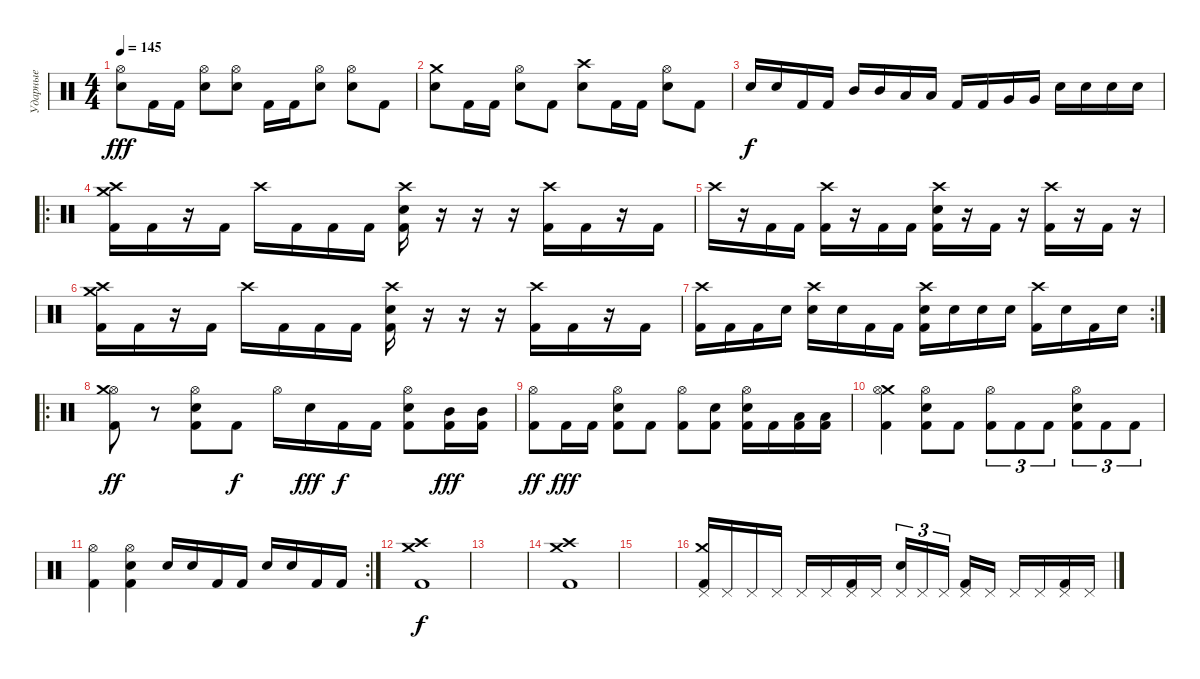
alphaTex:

\track ("Ударные" "Ударные") {instrument percussion}
\staff {score}
\articulation defaults
\ts (4 4)
\tempo 145
\clef neutral
\ks c
("Hi-Hat (open)" "Snare (hit) 2").8{dy fff} "Kick (hit) 2".16 "Kick (hit) 2".16 ("Hi-Hat (open)" "Snare (hit) 2").8 ("Hi-Hat (open)" "Snare (hit) 2").8 "Kick (hit) 2".16 "Kick (hit) 2".16 ("Hi-Hat (open)" "Snare (hit) 2").8 ("Hi-Hat (open)" "Snare (hit) 2").8 "Kick (hit) 2".8 |
("Crash medium (hit)" "Snare (hit) 2").8 "Kick (hit) 2".16 "Kick (hit) 2".16 ("Hi-Hat (open)" "Snare (hit) 2").8 "Kick (hit) 2".8 ("Crash high (hit)" "Snare (hit) 2").8 "Kick (hit) 2".16 "Kick (hit) 2".16 ("Hi-Hat (open)" "Snare (hit) 2").8 "Kick (hit) 2".8 |
"Snare (hit) 2".16{dy f} "Snare (hit) 2".16 "Kick (hit) 2".16 "Kick (hit) 2".16 "Mid Tom (hit)".16 "Mid Tom (hit)".16 "Low Tom (hit)".16 "Low Tom (hit)".16 "Kick (hit) 2".16 "Kick (hit) 2".16 "Very Low Tom (hit)".16 "Very Low Tom (hit)".16 "Snare (hit) 2".16 "Snare (hit) 2".16 "Snare (hit) 2".16 "Snare (hit) 2".16 |
\ro
("Crash high (hit)" "Crash medium (hit)" "Kick (hit) 2").16 "Kick (hit) 2".16 r.16 "Kick (hit) 2".16 "Crash high (hit)".16 "Kick (hit) 2".16 "Kick (hit) 2".16 "Kick (hit) 2".16 ("Crash high (hit)" "Snare (hit) 2" "Kick (hit) 2").16 r.16 r.16 r.16 ("Crash high (hit)" "Kick (hit) 2").16 "Kick (hit) 2".16 r.16 "Kick (hit) 2".16 |
"Crash high (hit)".16 r.16 "Kick (hit) 2".16 "Kick (hit) 2".16 ("Crash high (hit)" "Kick (hit) 2").16 r.16 "Kick (hit) 2".16 "Kick (hit) 2".16 ("Crash high (hit)" "Snare (hit) 2" "Kick (hit) 2").16 r.16 "Kick (hit) 2".16 r.16 ("Crash high (hit)" "Kick (hit) 2").16 r.16 "Kick (hit) 2".16 r.16 |
("Crash high (hit)" "Crash medium (hit)" "Kick (hit) 2").16 "Kick (hit) 2".16 r.16 "Kick (hit) 2".16 "Crash high (hit)".16 "Kick (hit) 2".16 "Kick (hit) 2".16 "Kick (hit) 2".16 ("Crash high (hit)" "Snare (hit) 2" "Kick (hit) 2").16 r.16 r.16 r.16 ("Crash high (hit)" "Kick (hit) 2").16 "Kick (hit) 2".16 r.16 "Kick (hit) 2".16 |
\rc 2
("Crash high (hit)" "Kick (hit) 2").16 "Kick (hit) 2".16 "Kick (hit) 2".16 "Snare (hit)".16 ("Crash high (hit)" "Snare (hit)").16 "Snare (hit)".16 "Kick (hit) 2".16 "Kick (hit) 2".16 ("Crash high (hit)" "Snare (hit) 2" "Kick (hit) 2").16 "Snare (hit)".16 "Snare (hit)".16 "Snare (hit)".16 ("Crash high (hit)" "Kick (hit) 2").16 "Snare (hit)".16 "Kick (hit) 2".16 "Snare (hit)".16 |
\ro
("Hi-Hat (open)" "Crash medium (hit)" "Kick (hit) 2").8{dy ff} r.8 ("Hi-Hat (open)" "Snare (hit) 2" "Kick (hit) 2").8 "Kick (hit) 2".8{dy f} "Hi-Hat (open)".16 "Electric Snare (hit)".16{dy fff} "Kick (hit) 2".16{dy f} "Kick (hit) 2".16 ("Hi-Hat (open)" "Snare (hit) 2" "Kick (hit) 2").8 ("Mid Tom (hit)" "Kick (hit) 2").16{dy fff} ("Mid Tom (hit)" "Kick (hit) 2").16 |
("Hi-Hat (open)" "Kick (hit) 2").8{dy ff} "Kick (hit) 2".16{dy fff} "Kick (hit) 2".16 ("Hi-Hat (open)" "Snare (hit) 2" "Kick (hit) 2").8 "Kick (hit) 2".8 ("Hi-Hat (open)" "Kick (hit) 2").8 ("Electric Snare (hit)" "Kick (hit) 2").8 ("Hi-Hat (open)" "Snare (hit) 2" "Kick (hit) 2").16 "Kick (hit) 2".16 ("Low Tom (hit)" "Kick (hit) 2").16 ("Low Tom (hit)" "Kick (hit) 2").16 |
("Crash medium (hit)" "Hi-Hat (open)" "Kick (hit) 2").4 ("Hi-Hat (open)" "Snare (hit) 2" "Kick (hit) 2").8 "Kick (hit) 2".8 ("Hi-Hat (open)" "Kick (hit) 2").8{tu (3 2)} "Kick (hit) 2".8{tu (3 2)} "Kick (hit) 2".8{tu (3 2)} ("Hi-Hat (open)" "Snare (hit) 2" "Kick (hit) 2").8{tu (3 2)} "Kick (hit) 2".8{tu (3 2)} "Kick (hit) 2".8{tu (3 2)} |
\rc 2
("Hi-Hat (open)" "Kick (hit) 2").4 ("Hi-Hat (open)" "Snare (hit) 2" "Kick (hit) 2").4 "Electric Snare (hit)".16 "Electric Snare (hit)".16 "Kick (hit) 2".16 "Kick (hit) 2".16 "Electric Snare (hit)".16 "Electric Snare (hit)".16 "Kick (hit) 2".16 "Kick (hit) 2".16 |
("Crash high (hit)" "Crash medium (hit)" "Kick (hit) 2").1{dy f} |
|
("Crash high (hit)" "Crash medium (hit)" "Kick (hit) 2").1 |
|
("Crash medium (hit)" "Pedal Hi-Hat (hit)" "Kick (hit) 2").16 "Pedal Hi-Hat (hit)".16 "Pedal Hi-Hat (hit)".16 "Pedal Hi-Hat (hit)".16 "Pedal Hi-Hat (hit)".16 "Pedal Hi-Hat (hit)".16 ("Pedal Hi-Hat (hit)" "Kick (hit) 2").16 "Pedal Hi-Hat (hit)".16 ("Hand Clap (hit)" "Pedal Hi-Hat (hit)").16{tu (3 2)} "Pedal Hi-Hat (hit)".16{tu (3 2)} "Pedal Hi-Hat (hit)".16{tu (3 2) beam splitsecondary} ("Pedal Hi-Hat (hit)" "Kick (hit) 2").16 "Pedal Hi-Hat (hit)".16 "Pedal Hi-Hat (hit)".16 "Pedal Hi-Hat (hit)".16 ("Pedal Hi-Hat (hit)" "Kick (hit) 2").16 "Pedal Hi-Hat (hit)".16
